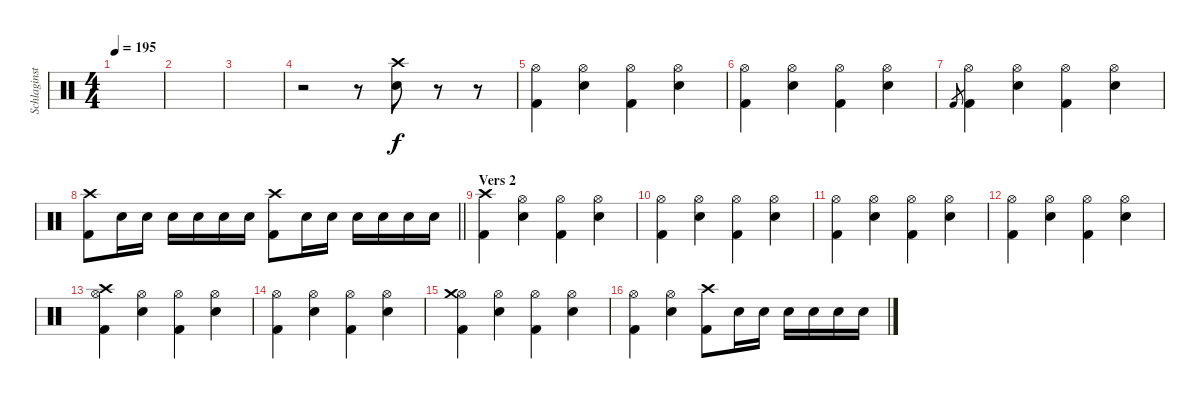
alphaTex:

\track ("Schlaginstrumente - Auswahl" "Schlaginst") {instrument percussion}
\staff {score}
\articulation defaults
\ts (4 4)
\tempo 195
\clef neutral
\ks c
|
|
|
r.2 r.8 ("Crash high (hit)" "Snare (hit) 2").8 r.8 r.8 |
("Hi-Hat (open)" "Kick (hit) 2").4 ("Hi-Hat (open)" "Snare (hit) 2").4 ("Hi-Hat (open)" "Kick (hit) 2").4 ("Hi-Hat (open)" "Snare (hit) 2").4 |
("Hi-Hat (open)" "Kick (hit) 2").4 ("Hi-Hat (open)" "Snare (hit) 2").4 ("Hi-Hat (open)" "Kick (hit) 2").4 ("Hi-Hat (open)" "Snare (hit) 2").4 |
"Kick (hit) 2".8{gr} ("Hi-Hat (open)" "Kick (hit) 2").4 ("Hi-Hat (open)" "Snare (hit) 2").4 ("Hi-Hat (open)" "Kick (hit) 2").4 ("Hi-Hat (open)" "Snare (hit) 2").4 |
\barLineRight lightlight
("Crash high (hit)" "Kick (hit) 2").8 "Snare (hit) 2".16 "Snare (hit) 2".16 "Snare (hit) 2".16 "Snare (hit) 2".16 "Snare (hit) 2".16 "Snare (hit) 2".16 ("Crash high (hit)" "Kick (hit) 2").8 "Snare (hit) 2".16 "Snare (hit) 2".16 "Snare (hit) 2".16 "Snare (hit) 2".16 "Snare (hit) 2".16 "Snare (hit) 2".16 |
\section ("" "Vers 2")
("Kick (hit) 2" "Crash high (hit)").4 ("Hi-Hat (open)" "Snare (hit) 2").4 ("Hi-Hat (open)" "Kick (hit) 2").4 ("Hi-Hat (open)" "Snare (hit) 2").4 |
("Hi-Hat (open)" "Kick (hit) 2").4 ("Hi-Hat (open)" "Snare (hit) 2").4 ("Hi-Hat (open)" "Kick (hit) 2").4 ("Hi-Hat (open)" "Snare (hit) 2").4 |
("Hi-Hat (open)" "Kick (hit) 2").4 ("Hi-Hat (open)" "Snare (hit) 2").4 ("Hi-Hat (open)" "Kick (hit) 2").4 ("Hi-Hat (open)" "Snare (hit) 2").4 |
("Hi-Hat (open)" "Kick (hit) 2").4 ("Hi-Hat (open)" "Snare (hit) 2").4 ("Hi-Hat (open)" "Kick (hit) 2").4 ("Hi-Hat (open)" "Snare (hit) 2").4 |
("Hi-Hat (open)" "Kick (hit) 2" "Crash high (hit)").4 ("Hi-Hat (open)" "Snare (hit) 2").4 ("Hi-Hat (open)" "Kick (hit) 2").4 ("Hi-Hat (open)" "Snare (hit) 2").4 |
("Hi-Hat (open)" "Kick (hit) 2").4 ("Hi-Hat (open)" "Snare (hit) 2").4 ("Hi-Hat (open)" "Kick (hit) 2").4 ("Hi-Hat (open)" "Snare (hit) 2").4 |
("Hi-Hat (open)" "Kick (hit) 2" "Crash medium (hit)").4 ("Hi-Hat (open)" "Snare (hit) 2").4 ("Hi-Hat (open)" "Kick (hit) 2").4 ("Hi-Hat (open)" "Snare (hit) 2").4 |
("Hi-Hat (open)" "Kick (hit) 2").4 ("Hi-Hat (open)" "Snare (hit) 2").4 ("Crash high (hit)" "Kick (hit) 2").8 "Snare (hit) 2".16 "Snare (hit) 2".16 "Snare (hit) 2".16 "Snare (hit) 2".16 "Snare (hit) 2".16 "Snare (hit) 2".16
